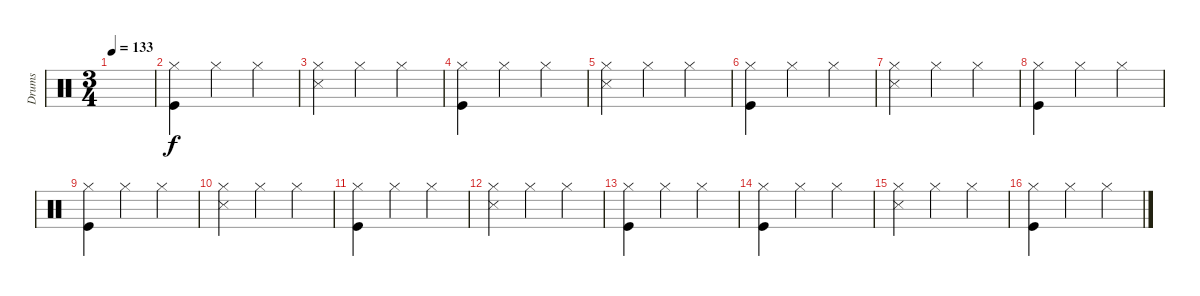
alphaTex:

\track ("Drums" "Drums") {instrument percussion}
\staff {score}
\articulation defaults
\ts (3 4)
\tempo 133
\clef neutral
\ks c
|
("Hi-Hat (closed)" "Kick (hit)").4 "Hi-Hat (closed)".4 "Hi-Hat (closed)".4 |
("Hi-Hat (closed)" "Snare (side stick) 3").4 "Hi-Hat (closed)".4 "Hi-Hat (closed)".4 |
("Hi-Hat (closed)" "Kick (hit)").4 "Hi-Hat (closed)".4 "Hi-Hat (closed)".4 |
("Hi-Hat (closed)" "Snare (side stick) 3").4 "Hi-Hat (closed)".4 "Hi-Hat (closed)".4 |
("Hi-Hat (closed)" "Kick (hit)").4 "Hi-Hat (closed)".4 "Hi-Hat (closed)".4 |
("Hi-Hat (closed)" "Snare (side stick) 3").4 "Hi-Hat (closed)".4 "Hi-Hat (closed)".4 |
("Hi-Hat (closed)" "Kick (hit)").4 "Hi-Hat (closed)".4 "Hi-Hat (closed)".4 |
("Hi-Hat (closed)" "Kick (hit)").4 "Hi-Hat (closed)".4 "Hi-Hat (closed)".4 |
("Hi-Hat (closed)" "Snare (side stick) 3").4 "Hi-Hat (closed)".4 "Hi-Hat (closed)".4 |
("Hi-Hat (closed)" "Kick (hit)").4 "Hi-Hat (closed)".4 "Hi-Hat (closed)".4 |
("Hi-Hat (closed)" "Snare (side stick) 3").4 "Hi-Hat (closed)".4 "Hi-Hat (closed)".4 |
("Hi-Hat (closed)" "Kick (hit)").4 "Hi-Hat (closed)".4 "Hi-Hat (closed)".4 |
("Hi-Hat (closed)" "Kick (hit)").4 "Hi-Hat (closed)".4 "Hi-Hat (closed)".4 |
("Hi-Hat (closed)" "Snare (side stick) 3").4 "Hi-Hat (closed)".4 "Hi-Hat (closed)".4 |
("Hi-Hat (closed)" "Kick (hit)").4 "Hi-Hat (closed)".4 "Hi-Hat (closed)".4
